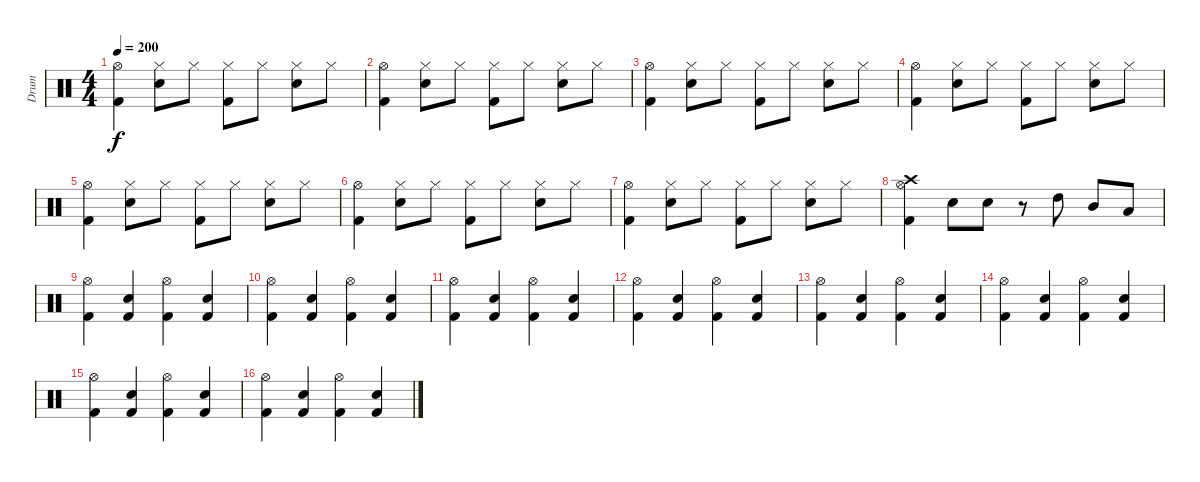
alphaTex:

\track ("Drum" "Drum") {instrument percussion}
\staff {score}
\articulation defaults
\ts (4 4)
\tempo 200
\clef neutral
\ks c
("Hi-Hat (open)" "Kick (hit) 2").4{dy f} ("Hi-Hat (closed)" "Snare (hit) 2").8 "Hi-Hat (closed)".8 ("Hi-Hat (closed)" "Kick (hit) 2").8 "Hi-Hat (closed)".8 ("Hi-Hat (closed)" "Snare (hit) 2").8 "Hi-Hat (closed)".8 |
("Hi-Hat (open)" "Kick (hit) 2").4 ("Hi-Hat (closed)" "Snare (hit) 2").8 "Hi-Hat (closed)".8 ("Hi-Hat (closed)" "Kick (hit) 2").8 "Hi-Hat (closed)".8 ("Hi-Hat (closed)" "Snare (hit) 2").8 "Hi-Hat (closed)".8 |
("Hi-Hat (open)" "Kick (hit) 2").4 ("Hi-Hat (closed)" "Snare (hit) 2").8 "Hi-Hat (closed)".8 ("Hi-Hat (closed)" "Kick (hit) 2").8 "Hi-Hat (closed)".8 ("Hi-Hat (closed)" "Snare (hit) 2").8 "Hi-Hat (closed)".8 |
("Hi-Hat (open)" "Kick (hit) 2").4 ("Hi-Hat (closed)" "Snare (hit) 2").8 "Hi-Hat (closed)".8 ("Hi-Hat (closed)" "Kick (hit) 2").8 "Hi-Hat (closed)".8 ("Hi-Hat (closed)" "Snare (hit) 2").8 "Hi-Hat (closed)".8 |
("Hi-Hat (open)" "Kick (hit) 2").4 ("Hi-Hat (closed)" "Snare (hit) 2").8 "Hi-Hat (closed)".8 ("Hi-Hat (closed)" "Kick (hit) 2").8 "Hi-Hat (closed)".8 ("Hi-Hat (closed)" "Snare (hit) 2").8 "Hi-Hat (closed)".8 |
("Hi-Hat (open)" "Kick (hit) 2").4 ("Hi-Hat (closed)" "Snare (hit) 2").8 "Hi-Hat (closed)".8 ("Hi-Hat (closed)" "Kick (hit) 2").8 "Hi-Hat (closed)".8 ("Hi-Hat (closed)" "Snare (hit) 2").8 "Hi-Hat (closed)".8 |
("Hi-Hat (open)" "Kick (hit) 2").4 ("Hi-Hat (closed)" "Snare (hit) 2").8 "Hi-Hat (closed)".8 ("Hi-Hat (closed)" "Kick (hit) 2").8 "Hi-Hat (closed)".8 ("Hi-Hat (closed)" "Snare (hit) 2").8 "Hi-Hat (closed)".8 |
("Crash high (hit)" "Hi-Hat (open)" "Kick (hit) 2").4 "Snare (hit) 2".8 "Snare (hit) 2".8 r.8 "High Tom (hit)".8 "Mid Tom (hit)".8 "Low Tom (hit)".8 |
("Hi-Hat (open)" "Kick (hit) 2").4 ("Snare (hit) 2" "Kick (hit) 2").4 ("Hi-Hat (open)" "Kick (hit) 2").4 ("Snare (hit) 2" "Kick (hit) 2").4 |
("Hi-Hat (open)" "Kick (hit) 2").4 ("Snare (hit) 2" "Kick (hit) 2").4 ("Hi-Hat (open)" "Kick (hit) 2").4 ("Snare (hit) 2" "Kick (hit) 2").4 |
("Hi-Hat (open)" "Kick (hit) 2").4 ("Snare (hit) 2" "Kick (hit) 2").4 ("Hi-Hat (open)" "Kick (hit) 2").4 ("Snare (hit) 2" "Kick (hit) 2").4 |
("Hi-Hat (open)" "Kick (hit) 2").4 ("Snare (hit) 2" "Kick (hit) 2").4 ("Hi-Hat (open)" "Kick (hit) 2").4 ("Snare (hit) 2" "Kick (hit) 2").4 |
("Hi-Hat (open)" "Kick (hit) 2").4 ("Snare (hit) 2" "Kick (hit) 2").4 ("Hi-Hat (open)" "Kick (hit) 2").4 ("Snare (hit) 2" "Kick (hit) 2").4 |
("Hi-Hat (open)" "Kick (hit) 2").4 ("Snare (hit) 2" "Kick (hit) 2").4 ("Hi-Hat (open)" "Kick (hit) 2").4 ("Snare (hit) 2" "Kick (hit) 2").4 |
("Hi-Hat (open)" "Kick (hit) 2").4 ("Snare (hit) 2" "Kick (hit) 2").4 ("Hi-Hat (open)" "Kick (hit) 2").4 ("Snare (hit) 2" "Kick (hit) 2").4 |
("Hi-Hat (open)" "Kick (hit) 2").4 ("Snare (hit) 2" "Kick (hit) 2").4 ("Hi-Hat (open)" "Kick (hit) 2").4 ("Snare (hit) 2" "Kick (hit) 2").4
